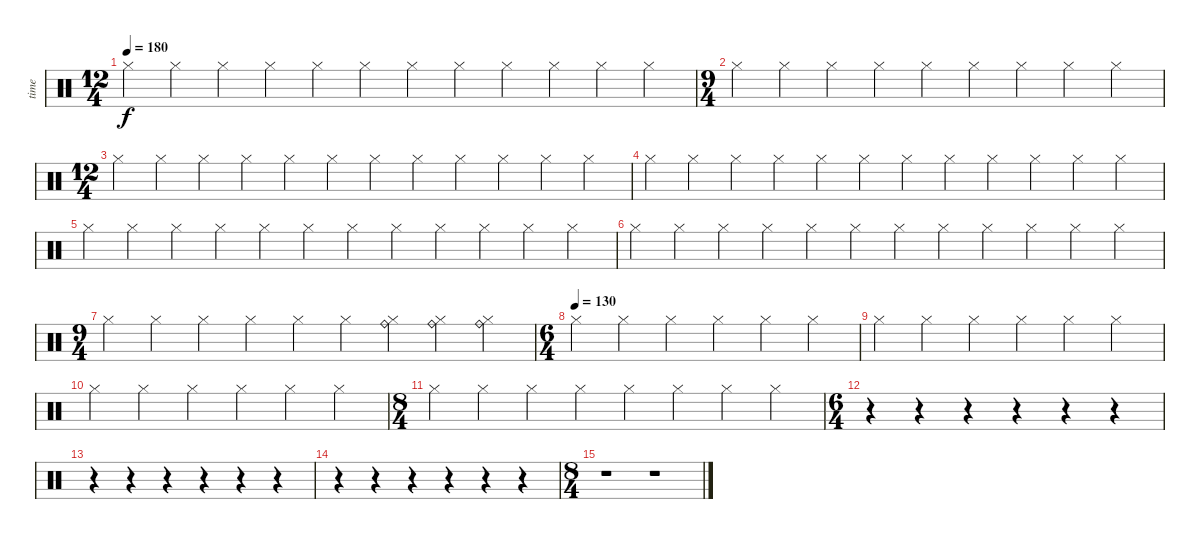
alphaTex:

\track ("time" "time") {instrument percussion}
\staff {score}
\articulation defaults
\ts (12 4)
\tempo 180
\clef neutral
\ks c "Hi-Hat (closed)".4{dy f} "Hi-Hat (closed)".4 "Hi-Hat (closed)".4 "Hi-Hat (closed)".4 "Hi-Hat (closed)".4 "Hi-Hat (closed)".4 "Hi-Hat (closed)".4 "Hi-Hat (closed)".4 "Hi-Hat (closed)".4 "Hi-Hat (closed)".4 "Hi-Hat (closed)".4 "Hi-Hat (closed)".4
|
\ts (9 4)
"Hi-Hat (closed)".4 "Hi-Hat (closed)".4 "Hi-Hat (closed)".4 "Hi-Hat (closed)".4 "Hi-Hat (closed)".4 "Hi-Hat (closed)".4 "Hi-Hat (closed)".4 "Hi-Hat (closed)".4 "Hi-Hat (closed)".4 |
\ts (12 4)
"Hi-Hat (closed)".4 "Hi-Hat (closed)".4 "Hi-Hat (closed)".4 "Hi-Hat (closed)".4 "Hi-Hat (closed)".4 "Hi-Hat (closed)".4 "Hi-Hat (closed)".4 "Hi-Hat (closed)".4 "Hi-Hat (closed)".4 "Hi-Hat (closed)".4 "Hi-Hat (closed)".4 "Hi-Hat (closed)".4 |
"Hi-Hat (closed)".4 "Hi-Hat (closed)".4 "Hi-Hat (closed)".4 "Hi-Hat (closed)".4 "Hi-Hat (closed)".4 "Hi-Hat (closed)".4 "Hi-Hat (closed)".4 "Hi-Hat (closed)".4 "Hi-Hat (closed)".4 "Hi-Hat (closed)".4 "Hi-Hat (closed)".4 "Hi-Hat (closed)".4 |
"Hi-Hat (closed)".4 "Hi-Hat (closed)".4 "Hi-Hat (closed)".4 "Hi-Hat (closed)".4 "Hi-Hat (closed)".4 "Hi-Hat (closed)".4 "Hi-Hat (closed)".4 "Hi-Hat (closed)".4 "Hi-Hat (closed)".4 "Hi-Hat (closed)".4 "Hi-Hat (closed)".4 "Hi-Hat (closed)".4 |
"Hi-Hat (closed)".4 "Hi-Hat (closed)".4 "Hi-Hat (closed)".4 "Hi-Hat (closed)".4 "Hi-Hat (closed)".4 "Hi-Hat (closed)".4 "Hi-Hat (closed)".4 "Hi-Hat (closed)".4 "Hi-Hat (closed)".4 "Hi-Hat (closed)".4 "Hi-Hat (closed)".4 "Hi-Hat (closed)".4 |
\ts (9 4)
"Hi-Hat (closed)".4 "Hi-Hat (closed)".4 "Hi-Hat (closed)".4 "Hi-Hat (closed)".4 "Hi-Hat (closed)".4 "Hi-Hat (closed)".4 ("Hi-Hat (closed)" "Ride (bell)").4 ("Hi-Hat (closed)" "Ride (bell)").4 ("Hi-Hat (closed)" "Ride (bell)").4 |
\ts (6 4)
\tempo (130)
"Hi-Hat (closed)".4 "Hi-Hat (closed)".4 "Hi-Hat (closed)".4 "Hi-Hat (closed)".4 "Hi-Hat (closed)".4 "Hi-Hat (closed)".4 |
"Hi-Hat (closed)".4 "Hi-Hat (closed)".4 "Hi-Hat (closed)".4 "Hi-Hat (closed)".4 "Hi-Hat (closed)".4 "Hi-Hat (closed)".4 |
"Hi-Hat (closed)".4 "Hi-Hat (closed)".4 "Hi-Hat (closed)".4 "Hi-Hat (closed)".4 "Hi-Hat (closed)".4 "Hi-Hat (closed)".4 |
\ts (8 4)
"Hi-Hat (closed)".4 "Hi-Hat (closed)".4 "Hi-Hat (closed)".4 "Hi-Hat (closed)".4 "Hi-Hat (closed)".4 "Hi-Hat (closed)".4 "Hi-Hat (closed)".4 "Hi-Hat (closed)".4 |
\ts (6 4)
r.4 r.4 r.4 r.4 r.4 r.4 |
r.4 r.4 r.4 r.4 r.4 r.4 |
r.4 r.4 r.4 r.4 r.4 r.4 |
\ts (8 4)
r.1 r.1
